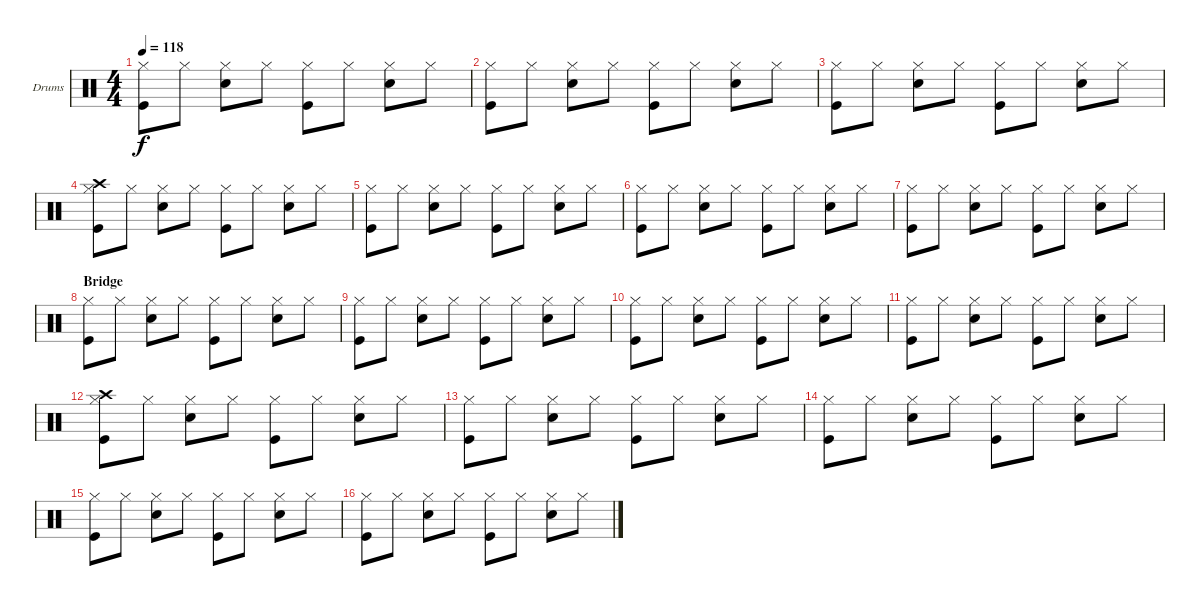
\bracketExtendMode groupsimilarinstruments
\firstSystemTrackNameOrientation horizontal
\otherSystemsTrackNameOrientation horizontal
\track ("Drumkit" "Drums") {instrument percussion}
\staff {score}
\articulation defaults
\ts (4 4)
\tempo 118
\clef neutral
\scale
0.333333
\ks c
("Hi-Hat (closed)" "Kick (hit)").8{dy f} "Hi-Hat (closed)".8 ("Hi-Hat (closed)" "Snare (hit) 2").8 "Hi-Hat (closed)".8 ("Hi-Hat (closed)" "Kick (hit)").8 "Hi-Hat (closed)".8 ("Hi-Hat (closed)" "Snare (hit) 2").8 "Hi-Hat (closed)".8 |
\scale
0.333333 ("Hi-Hat (closed)" "Kick (hit)").8 "Hi-Hat (closed)".8 ("Hi-Hat (closed)" "Snare (hit) 2").8 "Hi-Hat (closed)".8 ("Hi-Hat (closed)" "Kick (hit)").8 "Hi-Hat (closed)".8 ("Hi-Hat (closed)" "Snare (hit) 2").8 "Hi-Hat (closed)".8 |
\scale
0.333333 ("Hi-Hat (closed)" "Kick (hit)").8 "Hi-Hat (closed)".8 ("Hi-Hat (closed)" "Snare (hit) 2").8 "Hi-Hat (closed)".8 ("Hi-Hat (closed)" "Kick (hit)").8 "Hi-Hat (closed)".8 ("Hi-Hat (closed)" "Snare (hit) 2").8 "Hi-Hat (closed)".8 |
\scale
0.333333 ("Hi-Hat (closed)" "Kick (hit)" "Crash high (hit)").8 "Hi-Hat (closed)".8 ("Hi-Hat (closed)" "Snare (hit) 2").8 "Hi-Hat (closed)".8 ("Hi-Hat (closed)" "Kick (hit)").8 "Hi-Hat (closed)".8 ("Hi-Hat (closed)" "Snare (hit) 2").8 "Hi-Hat (closed)".8 |
\scale
0.333333 ("Hi-Hat (closed)" "Kick (hit)").8 "Hi-Hat (closed)".8 ("Hi-Hat (closed)" "Snare (hit) 2").8 "Hi-Hat (closed)".8 ("Hi-Hat (closed)" "Kick (hit)").8 "Hi-Hat (closed)".8 ("Hi-Hat (closed)" "Snare (hit) 2").8 "Hi-Hat (closed)".8 |
\scale
0.333333 ("Hi-Hat (closed)" "Kick (hit)").8 "Hi-Hat (closed)".8 ("Hi-Hat (closed)" "Snare (hit) 2").8 "Hi-Hat (closed)".8 ("Hi-Hat (closed)" "Kick (hit)").8 "Hi-Hat (closed)".8 ("Hi-Hat (closed)" "Snare (hit) 2").8 "Hi-Hat (closed)".8 |
\scale
0.333333 ("Hi-Hat (closed)" "Kick (hit)").8 "Hi-Hat (closed)".8 ("Hi-Hat (closed)" "Snare (hit) 2").8 "Hi-Hat (closed)".8 ("Hi-Hat (closed)" "Kick (hit)").8 "Hi-Hat (closed)".8 ("Hi-Hat (closed)" "Snare (hit) 2").8 "Hi-Hat (closed)".8 |
\section ("" "Bridge")
\scale
0.333333 ("Hi-Hat (closed)" "Kick (hit)").8 "Hi-Hat (closed)".8 ("Hi-Hat (closed)" "Snare (hit) 2").8 "Hi-Hat (closed)".8 ("Hi-Hat (closed)" "Kick (hit)").8 "Hi-Hat (closed)".8 ("Hi-Hat (closed)" "Snare (hit) 2").8 "Hi-Hat (closed)".8 |
\scale
0.333333 ("Hi-Hat (closed)" "Kick (hit)").8 "Hi-Hat (closed)".8 ("Hi-Hat (closed)" "Snare (hit) 2").8 "Hi-Hat (closed)".8 ("Hi-Hat (closed)" "Kick (hit)").8 "Hi-Hat (closed)".8 ("Hi-Hat (closed)" "Snare (hit) 2").8 "Hi-Hat (closed)".8 |
\scale
0.333333 ("Hi-Hat (closed)" "Kick (hit)").8 "Hi-Hat (closed)".8 ("Hi-Hat (closed)" "Snare (hit) 2").8 "Hi-Hat (closed)".8 ("Hi-Hat (closed)" "Kick (hit)").8 "Hi-Hat (closed)".8 ("Hi-Hat (closed)" "Snare (hit) 2").8 "Hi-Hat (closed)".8 |
\scale
0.333333 ("Hi-Hat (closed)" "Kick (hit)").8 "Hi-Hat (closed)".8 ("Hi-Hat (closed)" "Snare (hit) 2").8 "Hi-Hat (closed)".8 ("Hi-Hat (closed)" "Kick (hit)").8 "Hi-Hat (closed)".8 ("Hi-Hat (closed)" "Snare (hit) 2").8 "Hi-Hat (closed)".8 |
\scale
0.333333 ("Hi-Hat (closed)" "Kick (hit)" "Crash high (hit)").8 "Hi-Hat (closed)".8 ("Hi-Hat (closed)" "Snare (hit) 2").8 "Hi-Hat (closed)".8 ("Hi-Hat (closed)" "Kick (hit)").8 "Hi-Hat (closed)".8 ("Hi-Hat (closed)" "Snare (hit) 2").8 "Hi-Hat (closed)".8 |
\scale
0.333333 ("Hi-Hat (closed)" "Kick (hit)").8 "Hi-Hat (closed)".8 ("Hi-Hat (closed)" "Snare (hit) 2").8 "Hi-Hat (closed)".8 ("Hi-Hat (closed)" "Kick (hit)").8 "Hi-Hat (closed)".8 ("Hi-Hat (closed)" "Snare (hit) 2").8 "Hi-Hat (closed)".8 |
\scale
0.333333 ("Hi-Hat (closed)" "Kick (hit)").8 "Hi-Hat (closed)".8 ("Hi-Hat (closed)" "Snare (hit) 2").8 "Hi-Hat (closed)".8 ("Hi-Hat (closed)" "Kick (hit)").8 "Hi-Hat (closed)".8 ("Hi-Hat (closed)" "Snare (hit) 2").8 "Hi-Hat (closed)".8 |
\scale
0.333333 ("Hi-Hat (closed)" "Kick (hit)").8 "Hi-Hat (closed)".8 ("Hi-Hat (closed)" "Snare (hit) 2").8 "Hi-Hat (closed)".8 ("Hi-Hat (closed)" "Kick (hit)").8 "Hi-Hat (closed)".8 ("Hi-Hat (closed)" "Snare (hit) 2").8 "Hi-Hat (closed)".8 |
\scale
0.333333 ("Hi-Hat (closed)" "Kick (hit)").8 "Hi-Hat (closed)".8 ("Hi-Hat (closed)" "Snare (hit) 2").8 "Hi-Hat (closed)".8 ("Hi-Hat (closed)" "Kick (hit)").8 "Hi-Hat (closed)".8 ("Hi-Hat (closed)" "Snare (hit) 2").8 "Hi-Hat (closed)".8
